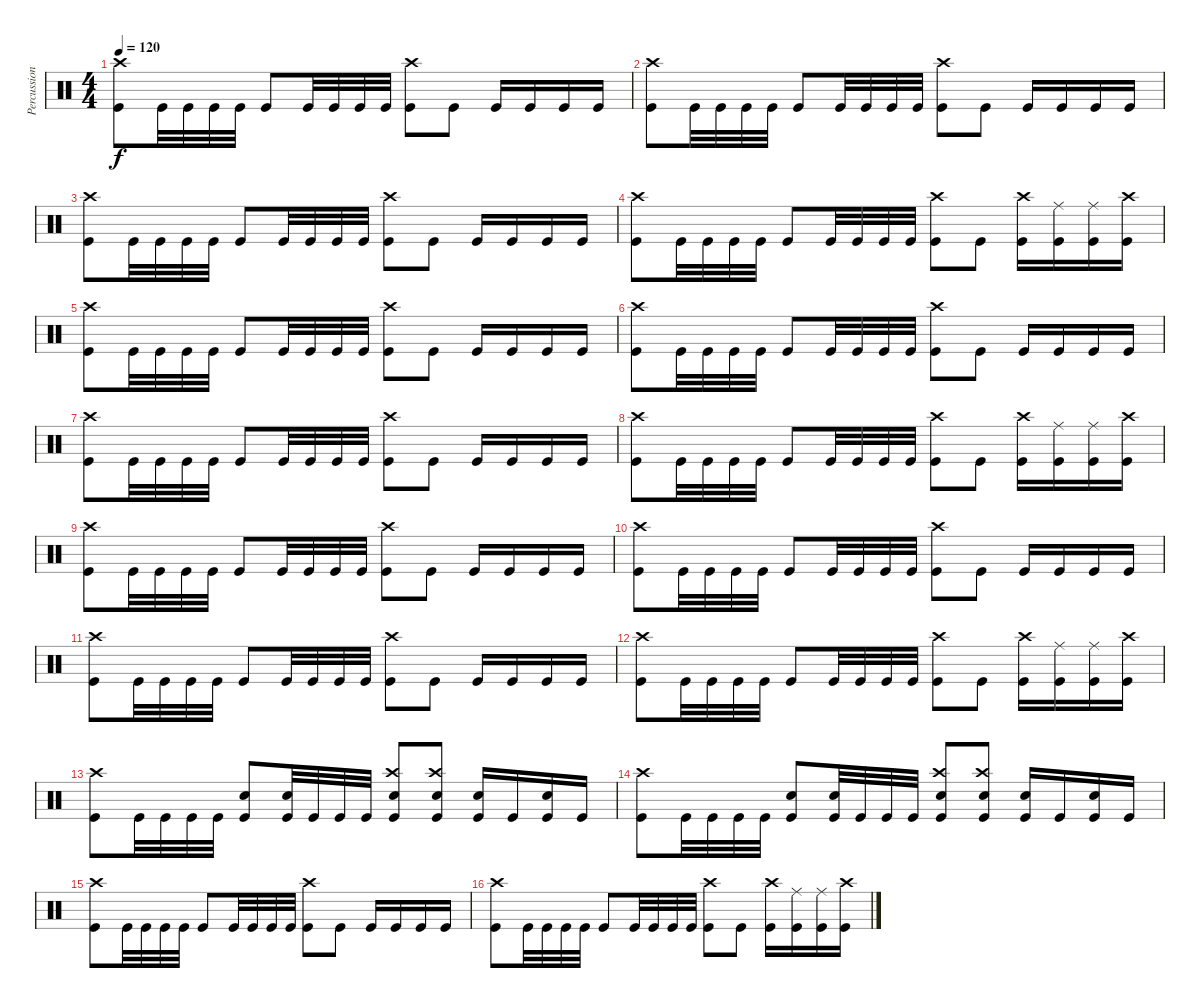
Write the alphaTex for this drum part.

\track ("Percussion" "Percussion") {instrument percussion}
\staff {score}
\articulation defaults
\ts (4 4)
\tempo 120
\clef neutral
\ks c
("Kick (hit)" "Crash high (hit)").8{dy f} "Kick (hit)".32 "Kick (hit)".32 "Kick (hit)".32 "Kick (hit)".32 "Kick (hit)".8 "Kick (hit)".32 "Kick (hit)".32 "Kick (hit)".32 "Kick (hit)".32 ("Kick (hit)" "Crash high (hit)").8 "Kick (hit)".8 "Kick (hit)".16 "Kick (hit)".16 "Kick (hit)".16 "Kick (hit)".16 |
("Kick (hit)" "Crash high (hit)").8 "Kick (hit)".32 "Kick (hit)".32 "Kick (hit)".32 "Kick (hit)".32 "Kick (hit)".8 "Kick (hit)".32 "Kick (hit)".32 "Kick (hit)".32 "Kick (hit)".32 ("Kick (hit)" "Crash high (hit)").8 "Kick (hit)".8 "Kick (hit)".16 "Kick (hit)".16 "Kick (hit)".16 "Kick (hit)".16 |
("Kick (hit)" "Crash high (hit)").8 "Kick (hit)".32 "Kick (hit)".32 "Kick (hit)".32 "Kick (hit)".32 "Kick (hit)".8 "Kick (hit)".32 "Kick (hit)".32 "Kick (hit)".32 "Kick (hit)".32 ("Kick (hit)" "Crash high (hit)").8 "Kick (hit)".8 "Kick (hit)".16 "Kick (hit)".16 "Kick (hit)".16 "Kick (hit)".16 |
("Kick (hit)" "Crash high (hit)").8 "Kick (hit)".32 "Kick (hit)".32 "Kick (hit)".32 "Kick (hit)".32 "Kick (hit)".8 "Kick (hit)".32 "Kick (hit)".32 "Kick (hit)".32 "Kick (hit)".32 ("Kick (hit)" "Crash high (hit)").8 "Kick (hit)".8 ("Crash high (hit)" "Kick (hit)").16 ("Ride (middle)" "Kick (hit)").16 ("Ride (middle)" "Kick (hit)").16 ("Crash high (hit)" "Kick (hit)").16 |
("Kick (hit)" "Crash high (hit)").8 "Kick (hit)".32 "Kick (hit)".32 "Kick (hit)".32 "Kick (hit)".32 "Kick (hit)".8 "Kick (hit)".32 "Kick (hit)".32 "Kick (hit)".32 "Kick (hit)".32 ("Kick (hit)" "Crash high (hit)").8 "Kick (hit)".8 "Kick (hit)".16 "Kick (hit)".16 "Kick (hit)".16 "Kick (hit)".16 |
("Kick (hit)" "Crash high (hit)").8 "Kick (hit)".32 "Kick (hit)".32 "Kick (hit)".32 "Kick (hit)".32 "Kick (hit)".8 "Kick (hit)".32 "Kick (hit)".32 "Kick (hit)".32 "Kick (hit)".32 ("Kick (hit)" "Crash high (hit)").8 "Kick (hit)".8 "Kick (hit)".16 "Kick (hit)".16 "Kick (hit)".16 "Kick (hit)".16 |
("Kick (hit)" "Crash high (hit)").8 "Kick (hit)".32 "Kick (hit)".32 "Kick (hit)".32 "Kick (hit)".32 "Kick (hit)".8 "Kick (hit)".32 "Kick (hit)".32 "Kick (hit)".32 "Kick (hit)".32 ("Kick (hit)" "Crash high (hit)").8 "Kick (hit)".8 "Kick (hit)".16 "Kick (hit)".16 "Kick (hit)".16 "Kick (hit)".16 |
("Kick (hit)" "Crash high (hit)").8 "Kick (hit)".32 "Kick (hit)".32 "Kick (hit)".32 "Kick (hit)".32 "Kick (hit)".8 "Kick (hit)".32 "Kick (hit)".32 "Kick (hit)".32 "Kick (hit)".32 ("Kick (hit)" "Crash high (hit)").8 "Kick (hit)".8 ("Crash high (hit)" "Kick (hit)").16 ("Ride (middle)" "Kick (hit)").16 ("Ride (middle)" "Kick (hit)").16 ("Crash high (hit)" "Kick (hit)").16 |
("Kick (hit)" "Crash high (hit)").8 "Kick (hit)".32 "Kick (hit)".32 "Kick (hit)".32 "Kick (hit)".32 "Kick (hit)".8 "Kick (hit)".32 "Kick (hit)".32 "Kick (hit)".32 "Kick (hit)".32 ("Kick (hit)" "Crash high (hit)").8 "Kick (hit)".8 "Kick (hit)".16 "Kick (hit)".16 "Kick (hit)".16 "Kick (hit)".16 |
("Kick (hit)" "Crash high (hit)").8 "Kick (hit)".32 "Kick (hit)".32 "Kick (hit)".32 "Kick (hit)".32 "Kick (hit)".8 "Kick (hit)".32 "Kick (hit)".32 "Kick (hit)".32 "Kick (hit)".32 ("Kick (hit)" "Crash high (hit)").8 "Kick (hit)".8 "Kick (hit)".16 "Kick (hit)".16 "Kick (hit)".16 "Kick (hit)".16 |
("Kick (hit)" "Crash high (hit)").8 "Kick (hit)".32 "Kick (hit)".32 "Kick (hit)".32 "Kick (hit)".32 "Kick (hit)".8 "Kick (hit)".32 "Kick (hit)".32 "Kick (hit)".32 "Kick (hit)".32 ("Kick (hit)" "Crash high (hit)").8 "Kick (hit)".8 "Kick (hit)".16 "Kick (hit)".16 "Kick (hit)".16 "Kick (hit)".16 |
("Kick (hit)" "Crash high (hit)").8 "Kick (hit)".32 "Kick (hit)".32 "Kick (hit)".32 "Kick (hit)".32 "Kick (hit)".8 "Kick (hit)".32 "Kick (hit)".32 "Kick (hit)".32 "Kick (hit)".32 ("Kick (hit)" "Crash high (hit)").8 "Kick (hit)".8 ("Crash high (hit)" "Kick (hit)").16 ("Ride (middle)" "Kick (hit)").16 ("Ride (middle)" "Kick (hit)").16 ("Crash high (hit)" "Kick (hit)").16 |
("Kick (hit)" "Crash high (hit)").8 "Kick (hit)".32 "Kick (hit)".32 "Kick (hit)".32 "Kick (hit)".32 ("Snare (hit) 2" "Kick (hit)").8 ("Snare (hit) 2" "Kick (hit)").32 "Kick (hit)".32 "Kick (hit)".32 "Kick (hit)".32 ("Snare (hit) 2" "Kick (hit)" "Crash high (hit)").8 ("Snare (hit) 2" "Crash high (hit)" "Kick (hit)").8 ("Snare (hit) 2" "Kick (hit)").16 "Kick (hit)".16 ("Snare (hit) 2" "Kick (hit)").16 "Kick (hit)".16 |
("Kick (hit)" "Crash high (hit)").8 "Kick (hit)".32 "Kick (hit)".32 "Kick (hit)".32 "Kick (hit)".32 ("Snare (hit) 2" "Kick (hit)").8 ("Snare (hit) 2" "Kick (hit)").32 "Kick (hit)".32 "Kick (hit)".32 "Kick (hit)".32 ("Snare (hit) 2" "Kick (hit)" "Crash high (hit)").8 ("Snare (hit) 2" "Crash high (hit)" "Kick (hit)").8 ("Snare (hit) 2" "Kick (hit)").16 "Kick (hit)".16 ("Snare (hit) 2" "Kick (hit)").16 "Kick (hit)".16 |
("Kick (hit)" "Crash high (hit)").8 "Kick (hit)".32 "Kick (hit)".32 "Kick (hit)".32 "Kick (hit)".32 "Kick (hit)".8 "Kick (hit)".32 "Kick (hit)".32 "Kick (hit)".32 "Kick (hit)".32 ("Kick (hit)" "Crash high (hit)").8 "Kick (hit)".8 "Kick (hit)".16 "Kick (hit)".16 "Kick (hit)".16 "Kick (hit)".16 |
("Kick (hit)" "Crash high (hit)").8 "Kick (hit)".32 "Kick (hit)".32 "Kick (hit)".32 "Kick (hit)".32 "Kick (hit)".8 "Kick (hit)".32 "Kick (hit)".32 "Kick (hit)".32 "Kick (hit)".32 ("Kick (hit)" "Crash high (hit)").8 "Kick (hit)".8 ("Crash high (hit)" "Kick (hit)").16 ("Ride (middle)" "Kick (hit)").16 ("Ride (middle)" "Kick (hit)").16 ("Crash high (hit)" "Kick (hit)").16
